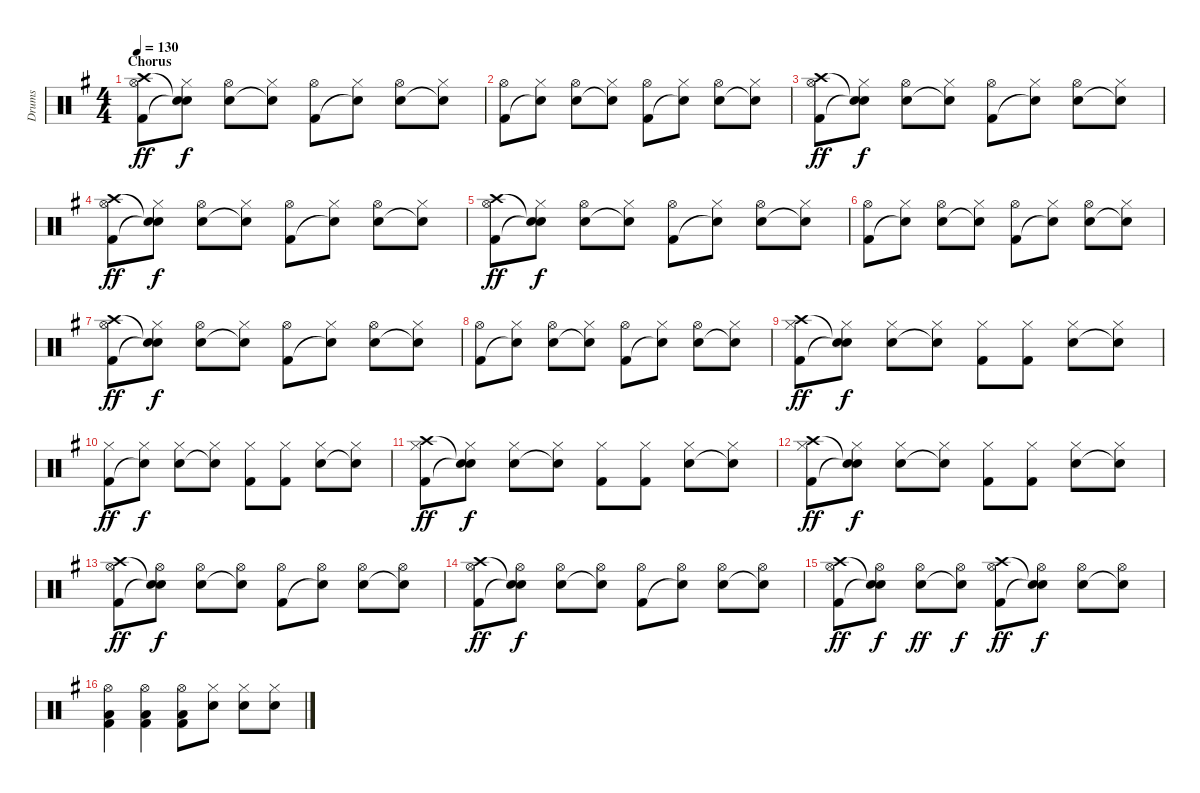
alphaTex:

\track ("Drums" "Drums") {instrument percussion}
\staff {score}
\articulation defaults
\ts (4 4)
\section ("" "Chorus")
\tempo 130
\clef neutral
\ks g
("Hi-Hat (open)" "Crash high (hit)" "Kick (hit) 2").8{dy ff} ("Hi-Hat (closed)" "Snare (hit)"{t} "Snare (hit)"{t}).8{dy f} ("Hi-Hat (open)" "Electric Snare (hit)").8 ("Hi-Hat (closed)" "Snare (hit)"{t}).8 ("Hi-Hat (open)" "Kick (hit) 2").8 ("Hi-Hat (closed)" "Snare (hit)"{t}).8 ("Hi-Hat (open)" "Electric Snare (hit)").8 ("Hi-Hat (closed)" "Snare (hit)"{t}).8 |
("Hi-Hat (open)" "Kick (hit) 2").8 ("Hi-Hat (closed)" "Snare (hit)"{t}).8 ("Hi-Hat (open)" "Electric Snare (hit)").8 ("Hi-Hat (closed)" "Snare (hit)"{t}).8 ("Hi-Hat (open)" "Kick (hit) 2").8 ("Hi-Hat (closed)" "Snare (hit)"{t}).8 ("Hi-Hat (open)" "Electric Snare (hit)").8 ("Hi-Hat (closed)" "Snare (hit)"{t}).8 |
("Hi-Hat (open)" "Crash high (hit)" "Kick (hit) 2").8{dy ff} ("Hi-Hat (closed)" "Snare (hit)"{t} "Snare (hit)"{t}).8{dy f} ("Hi-Hat (open)" "Electric Snare (hit)").8 ("Hi-Hat (closed)" "Snare (hit)"{t}).8 ("Hi-Hat (open)" "Kick (hit) 2").8 ("Hi-Hat (closed)" "Snare (hit)"{t}).8 ("Hi-Hat (open)" "Electric Snare (hit)").8 ("Hi-Hat (closed)" "Snare (hit)"{t}).8 |
("Hi-Hat (open)" "Crash high (hit)" "Kick (hit) 2").8{dy ff} ("Hi-Hat (closed)" "Snare (hit)"{t} "Snare (hit)"{t}).8{dy f} ("Hi-Hat (open)" "Electric Snare (hit)").8 ("Hi-Hat (closed)" "Snare (hit)"{t}).8 ("Hi-Hat (open)" "Kick (hit) 2").8 ("Hi-Hat (closed)" "Snare (hit)"{t}).8 ("Hi-Hat (open)" "Electric Snare (hit)").8 ("Hi-Hat (closed)" "Snare (hit)"{t}).8 |
("Hi-Hat (open)" "Crash high (hit)" "Kick (hit) 2").8{dy ff} ("Hi-Hat (closed)" "Snare (hit)"{t} "Snare (hit)"{t}).8{dy f} ("Hi-Hat (open)" "Electric Snare (hit)").8 ("Hi-Hat (closed)" "Snare (hit)"{t}).8 ("Hi-Hat (open)" "Kick (hit) 2").8 ("Hi-Hat (closed)" "Snare (hit)"{t}).8 ("Hi-Hat (open)" "Electric Snare (hit)").8 ("Hi-Hat (closed)" "Snare (hit)"{t}).8 |
("Hi-Hat (open)" "Kick (hit) 2").8 ("Hi-Hat (closed)" "Snare (hit)"{t}).8 ("Hi-Hat (open)" "Electric Snare (hit)").8 ("Hi-Hat (closed)" "Snare (hit)"{t}).8 ("Hi-Hat (open)" "Kick (hit) 2").8 ("Hi-Hat (closed)" "Snare (hit)"{t}).8 ("Hi-Hat (open)" "Electric Snare (hit)").8 ("Hi-Hat (closed)" "Snare (hit)"{t}).8 |
("Hi-Hat (open)" "Crash high (hit)" "Kick (hit) 2").8{dy ff} ("Hi-Hat (closed)" "Snare (hit)"{t} "Snare (hit)"{t}).8{dy f} ("Hi-Hat (open)" "Electric Snare (hit)").8 ("Hi-Hat (closed)" "Snare (hit)"{t}).8 ("Hi-Hat (open)" "Kick (hit) 2").8 ("Hi-Hat (closed)" "Snare (hit)"{t}).8 ("Hi-Hat (open)" "Electric Snare (hit)").8 ("Hi-Hat (closed)" "Snare (hit)"{t}).8 |
("Hi-Hat (open)" "Kick (hit) 2").8 ("Hi-Hat (closed)" "Snare (hit)"{t}).8 ("Hi-Hat (open)" "Electric Snare (hit)").8 ("Hi-Hat (closed)" "Snare (hit)"{t}).8 ("Hi-Hat (open)" "Kick (hit) 2").8 ("Hi-Hat (closed)" "Snare (hit)"{t}).8 ("Hi-Hat (open)" "Electric Snare (hit)").8 ("Hi-Hat (closed)" "Snare (hit)"{t}).8 |
("Hi-Hat (closed)" "Crash high (hit)" "Kick (hit) 2").8{dy ff} ("Hi-Hat (closed)" "Snare (hit)"{t} "Snare (hit)"{t}).8{dy f} ("Hi-Hat (closed)" "Electric Snare (hit)").8 ("Hi-Hat (closed)" "Snare (hit)"{t}).8 ("Hi-Hat (closed)" "Kick (hit) 2").8 ("Hi-Hat (closed)" "Kick (hit) 2").8 ("Hi-Hat (closed)" "Electric Snare (hit)").8 ("Hi-Hat (closed)" "Snare (hit)"{t}).8 |
("Hi-Hat (closed)" "Kick (hit) 2").8{dy ff} ("Hi-Hat (closed)" "Snare (hit)"{t}).8{dy f} ("Hi-Hat (closed)" "Electric Snare (hit)").8 ("Hi-Hat (closed)" "Snare (hit)"{t}).8 ("Hi-Hat (closed)" "Kick (hit) 2").8 ("Hi-Hat (closed)" "Kick (hit) 2").8 ("Hi-Hat (closed)" "Electric Snare (hit)").8 ("Hi-Hat (closed)" "Snare (hit)"{t}).8 |
("Hi-Hat (closed)" "Crash high (hit)" "Kick (hit) 2").8{dy ff} ("Hi-Hat (closed)" "Snare (hit)"{t} "Snare (hit)"{t}).8{dy f} ("Hi-Hat (closed)" "Electric Snare (hit)").8 ("Hi-Hat (closed)" "Snare (hit)"{t}).8 ("Hi-Hat (closed)" "Kick (hit) 2").8 ("Hi-Hat (closed)" "Kick (hit) 2").8 ("Hi-Hat (closed)" "Electric Snare (hit)").8 ("Hi-Hat (closed)" "Snare (hit)"{t}).8 |
("Hi-Hat (closed)" "Crash high (hit)" "Kick (hit) 2").8{dy ff} ("Hi-Hat (closed)" "Snare (hit)"{t} "Snare (hit)"{t}).8{dy f} ("Hi-Hat (closed)" "Electric Snare (hit)").8 ("Hi-Hat (closed)" "Snare (hit)"{t}).8 ("Hi-Hat (closed)" "Kick (hit) 2").8 ("Hi-Hat (closed)" "Kick (hit) 2").8 ("Hi-Hat (closed)" "Electric Snare (hit)").8 ("Hi-Hat (closed)" "Snare (hit)"{t}).8 |
("Hi-Hat (open)" "Crash high (hit)" "Kick (hit) 2").8{dy ff} ("Hi-Hat (open)" "Snare (hit)"{t} "Snare (hit)"{t}).8{dy f} ("Hi-Hat (open)" "Electric Snare (hit)").8 ("Hi-Hat (open)" "Snare (hit)"{t}).8 ("Hi-Hat (open)" "Kick (hit) 2").8 ("Hi-Hat (open)" "Snare (hit)"{t}).8 ("Hi-Hat (open)" "Electric Snare (hit)").8 ("Hi-Hat (open)" "Snare (hit)"{t}).8 |
("Hi-Hat (open)" "Crash high (hit)" "Kick (hit) 2").8{dy ff} ("Hi-Hat (open)" "Snare (hit)"{t} "Snare (hit)"{t}).8{dy f} ("Hi-Hat (open)" "Electric Snare (hit)").8 ("Hi-Hat (open)" "Snare (hit)"{t}).8 ("Hi-Hat (open)" "Kick (hit) 2").8 ("Hi-Hat (open)" "Snare (hit)"{t}).8 ("Hi-Hat (open)" "Electric Snare (hit)").8 ("Hi-Hat (open)" "Snare (hit)"{t}).8 |
("Hi-Hat (open)" "Crash high (hit)" "Kick (hit) 2").8{dy ff} ("Hi-Hat (open)" "Snare (hit)"{t} "Snare (hit)"{t}).8{dy f} ("Hi-Hat (open)" "Electric Snare (hit)").8{dy ff} ("Hi-Hat (open)" "Snare (hit)"{t}).8{dy f} ("Hi-Hat (open)" "Crash high (hit)" "Kick (hit) 2").8{dy ff} ("Hi-Hat (open)" "Snare (hit)"{t} "Snare (hit)"{t}).8{dy f} ("Hi-Hat (open)" "Electric Snare (hit)").8 ("Hi-Hat (open)" "Snare (hit)"{t}).8 |
("Hi-Hat (open)" "Kick (hit) 2" "Low Floor Tom (hit)").4 ("Hi-Hat (open)" "Kick (hit) 2" "Low Floor Tom (hit)").4 ("Hi-Hat (open)" "Kick (hit) 2" "Low Floor Tom (hit)").8 ("Hi-Hat (closed)" "Electric Snare (hit)").8 ("Hi-Hat (closed)" "Electric Snare (hit)").8 ("Hi-Hat (closed)" "Electric Snare (hit)").8
